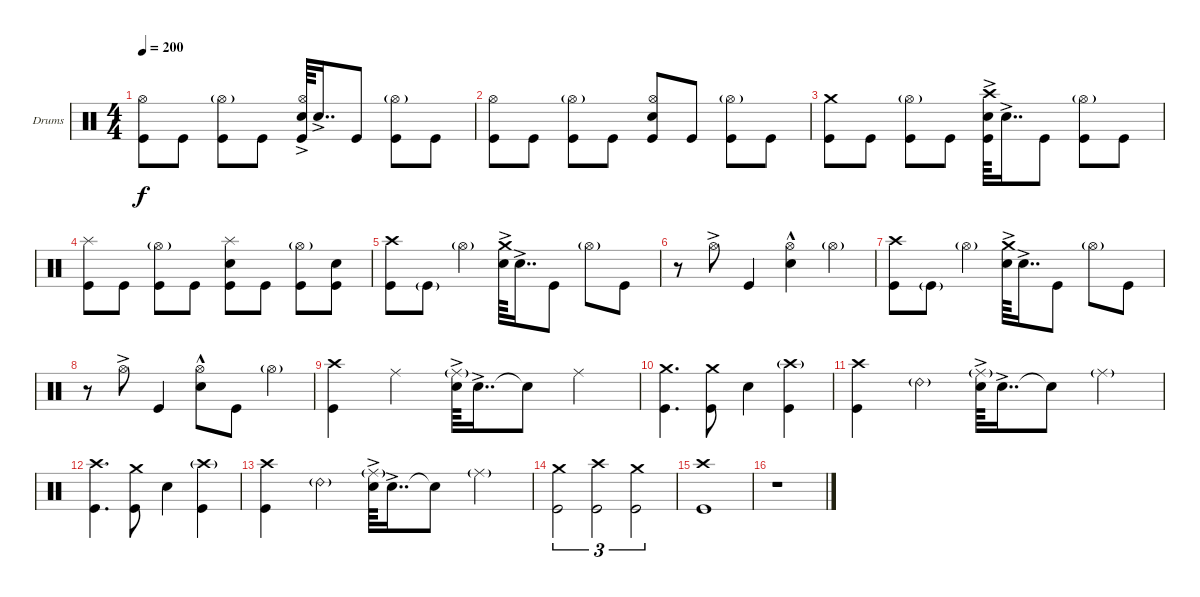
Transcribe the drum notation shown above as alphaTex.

\defaultSystemsLayout 4
\bracketExtendMode groupsimilarinstruments
\firstSystemTrackNameOrientation horizontal
\otherSystemsTrackNameOrientation horizontal
\track ("Drumkit" "Drums") {instrument percussion}
\staff {score}
\articulation defaults
\ts (4 4)
\tempo 200
\clef neutral
\ks c
("Kick (hit)" "Hi-Hat (open)").8{dy f} "Kick (hit)".8 ("Kick (hit)" "Hi-Hat (open)"{g}).8 "Kick (hit)".8 ("Kick (hit)" "Snare (hit) 2"{ac} "Hi-Hat (open)").64 "Snare (hit) 2"{ac}.16{dd} "Kick (hit)".8 ("Kick (hit)" "Hi-Hat (open)"{g}).8 "Kick (hit)".8 |
("Kick (hit)" "Hi-Hat (open)").8 "Kick (hit)".8 ("Kick (hit)" "Hi-Hat (open)"{g}).8 "Kick (hit)".8 ("Kick (hit)" "Snare (hit) 2" "Hi-Hat (open)").8 "Kick (hit)".8 ("Kick (hit)" "Hi-Hat (open)"{g}).8 "Kick (hit)".8 |
("Kick (hit)" "Crash medium (hit)").8 "Kick (hit)".8 ("Kick (hit)" "Hi-Hat (open)"{g}).8 "Kick (hit)".8 ("Kick (hit)" "Snare (hit) 2"{ac} "Crash high (hit)").64 "Snare (hit) 2"{ac}.16{dd} "Kick (hit)".8 ("Kick (hit)" "Hi-Hat (open)"{g}).8 "Kick (hit)".8 |
("Kick (hit)" "Splash (hit)").8 "Kick (hit)".8 ("Kick (hit)" "Hi-Hat (open)"{g}).8 "Kick (hit)".8 ("Kick (hit)" "Snare (hit) 2" "Splash (hit)").8 "Kick (hit)".8 ("Kick (hit)" "Hi-Hat (open)"{g}).8 ("Kick (hit)" "Snare (hit) 2").8 |
("Kick (hit)" "Crash high (hit)").8 "Kick (hit)"{g}.8 "Hi-Hat (open)"{g}.4 ("Snare (hit) 2"{ac} "Crash medium (hit)").64 "Snare (hit) 2"{ac}.16{dd} "Kick (hit)".8 "Hi-Hat (open)"{g}.8 "Kick (hit)".8 |
r.8 "Hi-Hat (open)"{ac}.8 "Kick (hit)".4 ("Snare (hit) 2" "Hi-Hat (open)"{hac}).4 "Hi-Hat (open)"{g}.4 |
("Kick (hit)" "Crash high (hit)").8 "Kick (hit)"{g}.8 "Hi-Hat (open)"{g}.4 ("Snare (hit) 2"{ac} "Crash medium (hit)").64 "Snare (hit) 2"{ac}.16{dd} "Kick (hit)".8 "Hi-Hat (open)"{g}.8 "Kick (hit)".8 |
r.8 "Hi-Hat (open)"{ac}.8 "Kick (hit)".4 ("Snare (hit) 2" "Hi-Hat (open)"{hac}).8 "Kick (hit)".8 "Hi-Hat (open)"{g}.4 |
("Crash high (hit)" "Kick (hit)").4 "Ride (middle)".4 ("Snare (hit) 2"{ac} "Ride (middle)"{g}).64 "Snare (hit) 2"{ac}.16{dd} "Snare (hit) 2"{t}.8 "Ride (middle)".4 |
("Kick (hit)" "Crash medium (hit)").4{d} ("Kick (hit)" "Crash medium (hit)").8 "Snare (hit) 2".4 ("Kick (hit)" "Crash high (hit)"{g}).4 |
("Crash high (hit)" "Kick (hit)").4 "Ride (bell) 2"{g}.4 ("Snare (hit) 2"{ac} "Ride (middle)"{g}).64 "Snare (hit) 2"{ac}.16{dd} "Snare (hit) 2"{t}.8 "Ride (middle)"{g}.4 |
("Kick (hit)" "Crash high (hit)").4{d} ("Kick (hit)" "Crash medium (hit)").8 "Snare (hit) 2".4 ("Kick (hit)" "Crash high (hit)"{g}).4 |
("Crash high (hit)" "Kick (hit)").4 "Ride (bell) 2"{g}.4 ("Snare (hit) 2"{ac} "Ride (middle)"{g}).64 "Snare (hit) 2"{ac}.16{dd} "Snare (hit) 2"{t}.8 "Ride (middle)"{g}.4 |
("Kick (hit)" "Crash medium (hit)").2{tu (3 2)} ("Kick (hit)" "Crash high (hit)").2{tu (3 2)} ("Kick (hit)" "Crash medium (hit)").2{tu (3 2)} |
("Kick (hit)" "Crash high (hit)").1 |
r.1
